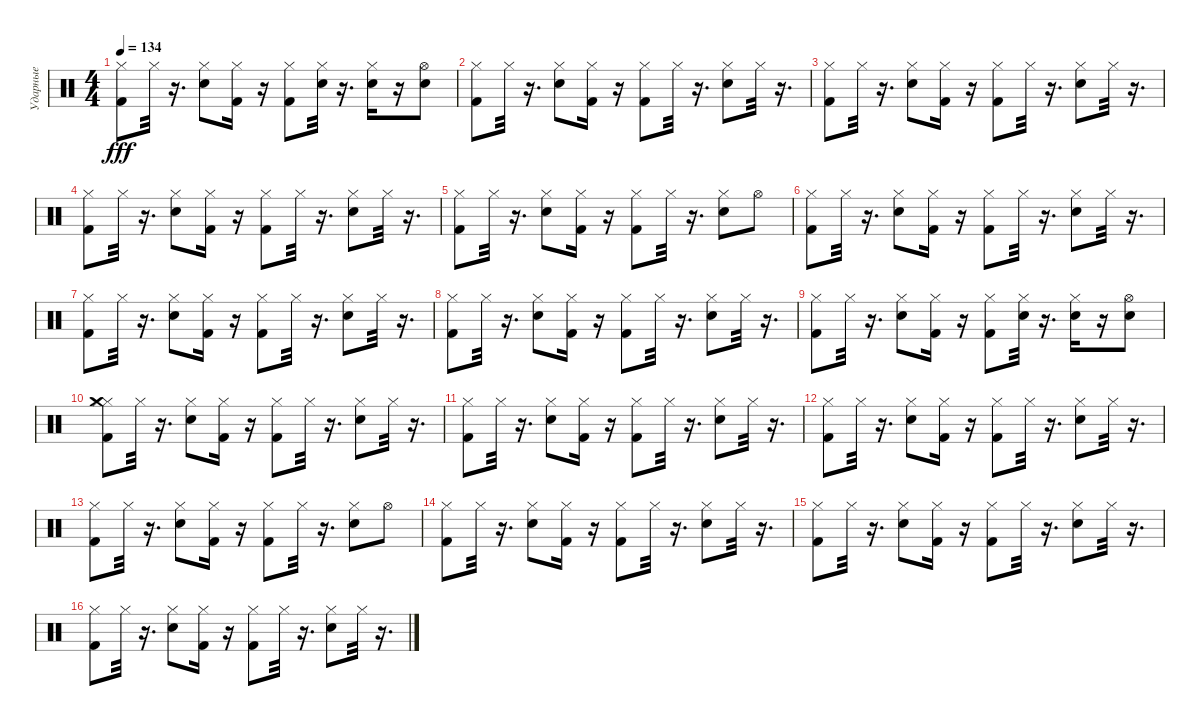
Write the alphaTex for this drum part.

\track ("Ударные" "Ударные") {instrument percussion}
\staff {score}
\articulation defaults
\ts (4 4)
\tempo 134
\clef neutral
\ks c
("Kick (hit) 2" "Hi-Hat (closed)").8{dy fff} "Hi-Hat (closed)".32 r.16{d} ("Electric Snare (hit)" "Hi-Hat (closed)").8 ("Kick (hit) 2" "Hi-Hat (closed)").16 r.16 ("Kick (hit) 2" "Hi-Hat (closed)").8 ("Electric Snare (hit)" "Hi-Hat (closed)").32 r.16{d} ("Electric Snare (hit)" "Hi-Hat (closed)").16 r.16 ("Electric Snare (hit)" "Hi-Hat (open)").8 |
("Kick (hit) 2" "Hi-Hat (closed)").8 "Hi-Hat (closed)".32 r.16{d} ("Electric Snare (hit)" "Hi-Hat (closed)").8 ("Kick (hit) 2" "Hi-Hat (closed)").16 r.16 ("Kick (hit) 2" "Hi-Hat (closed)").8 "Hi-Hat (closed)".32 r.16{d} ("Electric Snare (hit)" "Hi-Hat (closed)").8 "Hi-Hat (closed)".32 r.16{d} |
("Kick (hit) 2" "Hi-Hat (closed)").8 "Hi-Hat (closed)".32 r.16{d} ("Electric Snare (hit)" "Hi-Hat (closed)").8 ("Kick (hit) 2" "Hi-Hat (closed)").16 r.16 ("Kick (hit) 2" "Hi-Hat (closed)").8 "Hi-Hat (closed)".32 r.16{d} ("Electric Snare (hit)" "Hi-Hat (closed)").8 "Hi-Hat (closed)".32 r.16{d} |
("Kick (hit) 2" "Hi-Hat (closed)").8 "Hi-Hat (closed)".32 r.16{d} ("Electric Snare (hit)" "Hi-Hat (closed)").8 ("Kick (hit) 2" "Hi-Hat (closed)").16 r.16 ("Kick (hit) 2" "Hi-Hat (closed)").8 "Hi-Hat (closed)".32 r.16{d} ("Electric Snare (hit)" "Hi-Hat (closed)").8 "Hi-Hat (closed)".32 r.16{d} |
("Kick (hit) 2" "Hi-Hat (closed)").8 "Hi-Hat (closed)".32 r.16{d} ("Electric Snare (hit)" "Hi-Hat (closed)").8 ("Kick (hit) 2" "Hi-Hat (closed)").16 r.16 ("Kick (hit) 2" "Hi-Hat (closed)").8 "Hi-Hat (closed)".32 r.16{d} ("Electric Snare (hit)" "Hi-Hat (closed)").8 "Hi-Hat (open)".8 |
("Kick (hit) 2" "Hi-Hat (closed)").8 "Hi-Hat (closed)".32 r.16{d} ("Electric Snare (hit)" "Hi-Hat (closed)").8 ("Kick (hit) 2" "Hi-Hat (closed)").16 r.16 ("Kick (hit) 2" "Hi-Hat (closed)").8 "Hi-Hat (closed)".32 r.16{d} ("Electric Snare (hit)" "Hi-Hat (closed)").8 "Hi-Hat (closed)".32 r.16{d} |
("Kick (hit) 2" "Hi-Hat (closed)").8 "Hi-Hat (closed)".32 r.16{d} ("Electric Snare (hit)" "Hi-Hat (closed)").8 ("Kick (hit) 2" "Hi-Hat (closed)").16 r.16 ("Kick (hit) 2" "Hi-Hat (closed)").8 "Hi-Hat (closed)".32 r.16{d} ("Electric Snare (hit)" "Hi-Hat (closed)").8 "Hi-Hat (closed)".32 r.16{d} |
("Kick (hit) 2" "Hi-Hat (closed)").8 "Hi-Hat (closed)".32 r.16{d} ("Electric Snare (hit)" "Hi-Hat (closed)").8 ("Kick (hit) 2" "Hi-Hat (closed)").16 r.16 ("Kick (hit) 2" "Hi-Hat (closed)").8 "Hi-Hat (closed)".32 r.16{d} ("Electric Snare (hit)" "Hi-Hat (closed)").8 "Hi-Hat (closed)".32 r.16{d} |
("Kick (hit) 2" "Hi-Hat (closed)").8 "Hi-Hat (closed)".32 r.16{d} ("Electric Snare (hit)" "Hi-Hat (closed)").8 ("Kick (hit) 2" "Hi-Hat (closed)").16 r.16 ("Kick (hit) 2" "Hi-Hat (closed)").8 ("Electric Snare (hit)" "Hi-Hat (closed)").32 r.16{d} ("Electric Snare (hit)" "Hi-Hat (closed)").16 r.16 ("Electric Snare (hit)" "Hi-Hat (open)").8 |
("Kick (hit) 2" "Hi-Hat (closed)" "Hi-Hat (closed)" "Crash medium (hit)").8 "Hi-Hat (closed)".32 r.16{d} ("Electric Snare (hit)" "Hi-Hat (closed)").8 ("Kick (hit) 2" "Hi-Hat (closed)").16 r.16 ("Kick (hit) 2" "Hi-Hat (closed)").8 "Hi-Hat (closed)".32 r.16{d} ("Electric Snare (hit)" "Hi-Hat (closed)").8 "Hi-Hat (closed)".32 r.16{d} |
("Kick (hit) 2" "Hi-Hat (closed)").8 "Hi-Hat (closed)".32 r.16{d} ("Electric Snare (hit)" "Hi-Hat (closed)").8 ("Kick (hit) 2" "Hi-Hat (closed)").16 r.16 ("Kick (hit) 2" "Hi-Hat (closed)").8 "Hi-Hat (closed)".32 r.16{d} ("Electric Snare (hit)" "Hi-Hat (closed)").8 "Hi-Hat (closed)".32 r.16{d} |
("Kick (hit) 2" "Hi-Hat (closed)").8 "Hi-Hat (closed)".32 r.16{d} ("Electric Snare (hit)" "Hi-Hat (closed)").8 ("Kick (hit) 2" "Hi-Hat (closed)").16 r.16 ("Kick (hit) 2" "Hi-Hat (closed)").8 "Hi-Hat (closed)".32 r.16{d} ("Electric Snare (hit)" "Hi-Hat (closed)").8 "Hi-Hat (closed)".32 r.16{d} |
("Kick (hit) 2" "Hi-Hat (closed)").8 "Hi-Hat (closed)".32 r.16{d} ("Electric Snare (hit)" "Hi-Hat (closed)").8 ("Kick (hit) 2" "Hi-Hat (closed)").16 r.16 ("Kick (hit) 2" "Hi-Hat (closed)").8 "Hi-Hat (closed)".32 r.16{d} ("Electric Snare (hit)" "Hi-Hat (closed)").8 "Hi-Hat (open)".8 |
("Kick (hit) 2" "Hi-Hat (closed)").8 "Hi-Hat (closed)".32 r.16{d} ("Electric Snare (hit)" "Hi-Hat (closed)").8 ("Kick (hit) 2" "Hi-Hat (closed)").16 r.16 ("Kick (hit) 2" "Hi-Hat (closed)").8 "Hi-Hat (closed)".32 r.16{d} ("Electric Snare (hit)" "Hi-Hat (closed)").8 "Hi-Hat (closed)".32 r.16{d} |
("Kick (hit) 2" "Hi-Hat (closed)").8 "Hi-Hat (closed)".32 r.16{d} ("Electric Snare (hit)" "Hi-Hat (closed)").8 ("Kick (hit) 2" "Hi-Hat (closed)").16 r.16 ("Kick (hit) 2" "Hi-Hat (closed)").8 "Hi-Hat (closed)".32 r.16{d} ("Electric Snare (hit)" "Hi-Hat (closed)").8 "Hi-Hat (closed)".32 r.16{d} |
("Kick (hit) 2" "Hi-Hat (closed)").8 "Hi-Hat (closed)".32 r.16{d} ("Electric Snare (hit)" "Hi-Hat (closed)").8 ("Kick (hit) 2" "Hi-Hat (closed)").16 r.16 ("Kick (hit) 2" "Hi-Hat (closed)").8 "Hi-Hat (closed)".32 r.16{d} ("Electric Snare (hit)" "Hi-Hat (closed)").8 "Hi-Hat (closed)".32 r.16{d}
